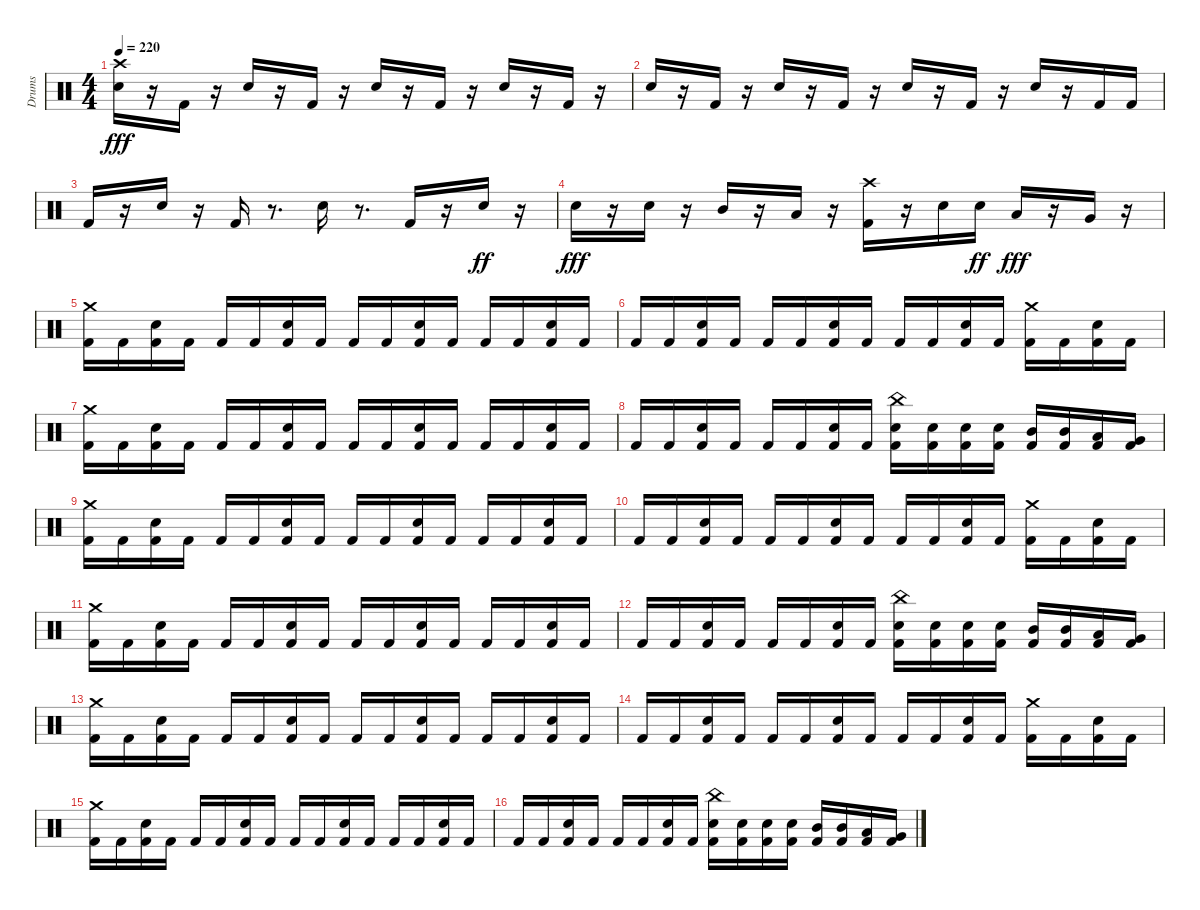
\track ("Drums" "Drums") {instrument percussion}
\staff {score}
\articulation defaults
\ts (4 4)
\tempo 220
\clef neutral
\ks c
("Crash high (hit)" "Snare (hit) 2").16{dy fff} r.16 "Kick (hit) 2".16 r.16 "Snare (hit) 2".16 r.16 "Kick (hit) 2".16 r.16 "Snare (hit) 2".16 r.16 "Kick (hit) 2".16 r.16 "Snare (hit) 2".16 r.16 "Kick (hit) 2".16 r.16 |
"Snare (hit) 2".16 r.16 "Kick (hit) 2".16 r.16 "Snare (hit) 2".16 r.16 "Kick (hit) 2".16 r.16 "Snare (hit) 2".16 r.16 "Kick (hit) 2".16 r.16 "Snare (hit) 2".16 r.16 "Kick (hit) 2".16 "Kick (hit) 2".16 |
"Kick (hit) 2".16 r.16 "Snare (hit) 2".16 r.16 "Kick (hit) 2".16 r.8{d} "Snare (hit) 2".16 r.8{d} "Kick (hit) 2".16 r.16 "Snare (hit) 2".16{dy ff} r.16 |
"Snare (hit) 2".16{dy fff} r.16 "Snare (hit) 2".16 r.16 "Mid Tom (hit)".16 r.16 "Low Tom (hit)".16 r.16 ("Crash high (hit)" "Kick (hit) 2").16 r.16 "Snare (hit) 2".16 "Snare (hit) 2".16{dy ff} "Low Tom (hit)".16{dy fff} r.16 "Very Low Tom (hit)".16 r.16 |
("Crash medium (hit)" "Kick (hit) 2").16 "Kick (hit) 2".16 ("Kick (hit) 2" "Snare (hit) 2").16 "Kick (hit) 2".16 "Kick (hit) 2".16 "Kick (hit) 2".16 ("Kick (hit) 2" "Snare (hit) 2").16 "Kick (hit) 2".16 "Kick (hit) 2".16 "Kick (hit) 2".16 ("Kick (hit) 2" "Snare (hit) 2").16 "Kick (hit) 2".16 "Kick (hit) 2".16 "Kick (hit) 2".16 ("Kick (hit) 2" "Snare (hit) 2").16 "Kick (hit) 2".16 |
"Kick (hit) 2".16 "Kick (hit) 2".16 ("Kick (hit) 2" "Snare (hit) 2").16 "Kick (hit) 2".16 "Kick (hit) 2".16 "Kick (hit) 2".16 ("Kick (hit) 2" "Snare (hit) 2").16 "Kick (hit) 2".16 "Kick (hit) 2".16 "Kick (hit) 2".16 ("Kick (hit) 2" "Snare (hit) 2").16 "Kick (hit) 2".16 ("Crash medium (hit)" "Kick (hit) 2").16 "Kick (hit) 2".16 ("Kick (hit) 2" "Snare (hit) 2").16 "Kick (hit) 2".16 |
("Crash medium (hit)" "Kick (hit) 2").16 "Kick (hit) 2".16 ("Kick (hit) 2" "Snare (hit) 2").16 "Kick (hit) 2".16 "Kick (hit) 2".16 "Kick (hit) 2".16 ("Kick (hit) 2" "Snare (hit) 2").16 "Kick (hit) 2".16 "Kick (hit) 2".16 "Kick (hit) 2".16 ("Kick (hit) 2" "Snare (hit) 2").16 "Kick (hit) 2".16 "Kick (hit) 2".16 "Kick (hit) 2".16 ("Kick (hit) 2" "Snare (hit) 2").16 "Kick (hit) 2".16 |
"Kick (hit) 2".16 "Kick (hit) 2".16 ("Kick (hit) 2" "Snare (hit) 2").16 "Kick (hit) 2".16 "Kick (hit) 2".16 "Kick (hit) 2".16 ("Kick (hit) 2" "Snare (hit) 2").16 "Kick (hit) 2".16 ("China (hit)" "Kick (hit) 2" "Snare (hit) 2").16 ("Kick (hit) 2" "Snare (hit) 2").16 ("Kick (hit) 2" "Snare (hit) 2").16 ("Kick (hit) 2" "Snare (hit) 2").16 ("Kick (hit) 2" "Mid Tom (hit)").16 ("Kick (hit) 2" "Mid Tom (hit)").16 ("Kick (hit) 2" "Low Tom (hit)").16 ("Kick (hit) 2" "Very Low Tom (hit)").16 |
("Crash medium (hit)" "Kick (hit) 2").16 "Kick (hit) 2".16 ("Kick (hit) 2" "Snare (hit) 2").16 "Kick (hit) 2".16 "Kick (hit) 2".16 "Kick (hit) 2".16 ("Kick (hit) 2" "Snare (hit) 2").16 "Kick (hit) 2".16 "Kick (hit) 2".16 "Kick (hit) 2".16 ("Kick (hit) 2" "Snare (hit) 2").16 "Kick (hit) 2".16 "Kick (hit) 2".16 "Kick (hit) 2".16 ("Kick (hit) 2" "Snare (hit) 2").16 "Kick (hit) 2".16 |
"Kick (hit) 2".16 "Kick (hit) 2".16 ("Kick (hit) 2" "Snare (hit) 2").16 "Kick (hit) 2".16 "Kick (hit) 2".16 "Kick (hit) 2".16 ("Kick (hit) 2" "Snare (hit) 2").16 "Kick (hit) 2".16 "Kick (hit) 2".16 "Kick (hit) 2".16 ("Kick (hit) 2" "Snare (hit) 2").16 "Kick (hit) 2".16 ("Crash medium (hit)" "Kick (hit) 2").16 "Kick (hit) 2".16 ("Kick (hit) 2" "Snare (hit) 2").16 "Kick (hit) 2".16 |
("Crash medium (hit)" "Kick (hit) 2").16 "Kick (hit) 2".16 ("Kick (hit) 2" "Snare (hit) 2").16 "Kick (hit) 2".16 "Kick (hit) 2".16 "Kick (hit) 2".16 ("Kick (hit) 2" "Snare (hit) 2").16 "Kick (hit) 2".16 "Kick (hit) 2".16 "Kick (hit) 2".16 ("Kick (hit) 2" "Snare (hit) 2").16 "Kick (hit) 2".16 "Kick (hit) 2".16 "Kick (hit) 2".16 ("Kick (hit) 2" "Snare (hit) 2").16 "Kick (hit) 2".16 |
"Kick (hit) 2".16 "Kick (hit) 2".16 ("Kick (hit) 2" "Snare (hit) 2").16 "Kick (hit) 2".16 "Kick (hit) 2".16 "Kick (hit) 2".16 ("Kick (hit) 2" "Snare (hit) 2").16 "Kick (hit) 2".16 ("China (hit)" "Kick (hit) 2" "Snare (hit) 2").16 ("Kick (hit) 2" "Snare (hit) 2").16 ("Kick (hit) 2" "Snare (hit) 2").16 ("Kick (hit) 2" "Snare (hit) 2").16 ("Kick (hit) 2" "Mid Tom (hit)").16 ("Kick (hit) 2" "Mid Tom (hit)").16 ("Kick (hit) 2" "Low Tom (hit)").16 ("Kick (hit) 2" "Very Low Tom (hit)").16 |
("Crash medium (hit)" "Kick (hit) 2").16 "Kick (hit) 2".16 ("Kick (hit) 2" "Snare (hit) 2").16 "Kick (hit) 2".16 "Kick (hit) 2".16 "Kick (hit) 2".16 ("Kick (hit) 2" "Snare (hit) 2").16 "Kick (hit) 2".16 "Kick (hit) 2".16 "Kick (hit) 2".16 ("Kick (hit) 2" "Snare (hit) 2").16 "Kick (hit) 2".16 "Kick (hit) 2".16 "Kick (hit) 2".16 ("Kick (hit) 2" "Snare (hit) 2").16 "Kick (hit) 2".16 |
"Kick (hit) 2".16 "Kick (hit) 2".16 ("Kick (hit) 2" "Snare (hit) 2").16 "Kick (hit) 2".16 "Kick (hit) 2".16 "Kick (hit) 2".16 ("Kick (hit) 2" "Snare (hit) 2").16 "Kick (hit) 2".16 "Kick (hit) 2".16 "Kick (hit) 2".16 ("Kick (hit) 2" "Snare (hit) 2").16 "Kick (hit) 2".16 ("Crash medium (hit)" "Kick (hit) 2").16 "Kick (hit) 2".16 ("Kick (hit) 2" "Snare (hit) 2").16 "Kick (hit) 2".16 |
("Crash medium (hit)" "Kick (hit) 2").16 "Kick (hit) 2".16 ("Kick (hit) 2" "Snare (hit) 2").16 "Kick (hit) 2".16 "Kick (hit) 2".16 "Kick (hit) 2".16 ("Kick (hit) 2" "Snare (hit) 2").16 "Kick (hit) 2".16 "Kick (hit) 2".16 "Kick (hit) 2".16 ("Kick (hit) 2" "Snare (hit) 2").16 "Kick (hit) 2".16 "Kick (hit) 2".16 "Kick (hit) 2".16 ("Kick (hit) 2" "Snare (hit) 2").16 "Kick (hit) 2".16 |
"Kick (hit) 2".16 "Kick (hit) 2".16 ("Kick (hit) 2" "Snare (hit) 2").16 "Kick (hit) 2".16 "Kick (hit) 2".16 "Kick (hit) 2".16 ("Kick (hit) 2" "Snare (hit) 2").16 "Kick (hit) 2".16 ("China (hit)" "Kick (hit) 2" "Snare (hit) 2").16 ("Kick (hit) 2" "Snare (hit) 2").16 ("Kick (hit) 2" "Snare (hit) 2").16 ("Kick (hit) 2" "Snare (hit) 2").16 ("Kick (hit) 2" "Mid Tom (hit)").16 ("Kick (hit) 2" "Mid Tom (hit)").16 ("Kick (hit) 2" "Low Tom (hit)").16 ("Kick (hit) 2" "Very Low Tom (hit)").16
